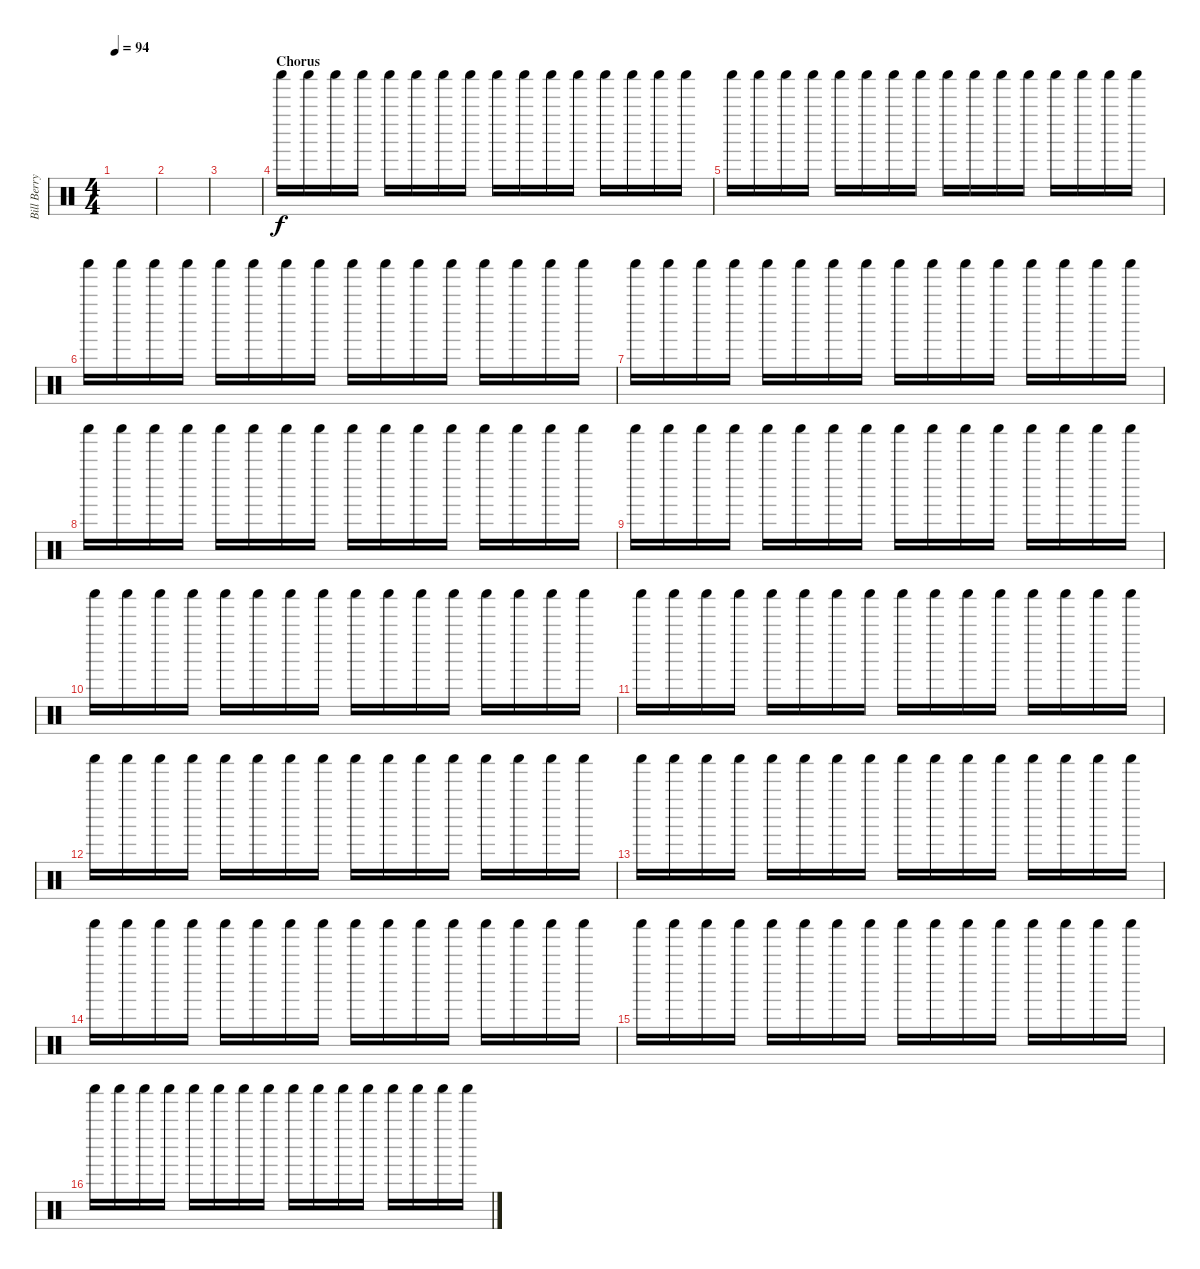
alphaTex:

\track ("Bill Berry (Percussion)" "Bill Berry") {instrument percussion}
\staff {score}
\articulation defaults
\ts (4 4)
\tempo 94
\clef neutral
\ks c
|
|
|
\section ("" "Chorus")
"Shaker (hit)".16 "Shaker (hit)".16 "Shaker (hit)".16 "Shaker (hit)".16 "Shaker (hit)".16 "Shaker (hit)".16 "Shaker (hit)".16 "Shaker (hit)".16 "Shaker (hit)".16 "Shaker (hit)".16 "Shaker (hit)".16 "Shaker (hit)".16 "Shaker (hit)".16 "Shaker (hit)".16 "Shaker (hit)".16 "Shaker (hit)".16 |
"Shaker (hit)".16 "Shaker (hit)".16 "Shaker (hit)".16 "Shaker (hit)".16 "Shaker (hit)".16 "Shaker (hit)".16 "Shaker (hit)".16 "Shaker (hit)".16 "Shaker (hit)".16 "Shaker (hit)".16 "Shaker (hit)".16 "Shaker (hit)".16 "Shaker (hit)".16 "Shaker (hit)".16 "Shaker (hit)".16 "Shaker (hit)".16 |
"Shaker (hit)".16 "Shaker (hit)".16 "Shaker (hit)".16 "Shaker (hit)".16 "Shaker (hit)".16 "Shaker (hit)".16 "Shaker (hit)".16 "Shaker (hit)".16 "Shaker (hit)".16 "Shaker (hit)".16 "Shaker (hit)".16 "Shaker (hit)".16 "Shaker (hit)".16 "Shaker (hit)".16 "Shaker (hit)".16 "Shaker (hit)".16 |
"Shaker (hit)".16 "Shaker (hit)".16 "Shaker (hit)".16 "Shaker (hit)".16 "Shaker (hit)".16 "Shaker (hit)".16 "Shaker (hit)".16 "Shaker (hit)".16 "Shaker (hit)".16 "Shaker (hit)".16 "Shaker (hit)".16 "Shaker (hit)".16 "Shaker (hit)".16 "Shaker (hit)".16 "Shaker (hit)".16 "Shaker (hit)".16 |
"Shaker (hit)".16 "Shaker (hit)".16 "Shaker (hit)".16 "Shaker (hit)".16 "Shaker (hit)".16 "Shaker (hit)".16 "Shaker (hit)".16 "Shaker (hit)".16 "Shaker (hit)".16 "Shaker (hit)".16 "Shaker (hit)".16 "Shaker (hit)".16 "Shaker (hit)".16 "Shaker (hit)".16 "Shaker (hit)".16 "Shaker (hit)".16 |
"Shaker (hit)".16 "Shaker (hit)".16 "Shaker (hit)".16 "Shaker (hit)".16 "Shaker (hit)".16 "Shaker (hit)".16 "Shaker (hit)".16 "Shaker (hit)".16 "Shaker (hit)".16 "Shaker (hit)".16 "Shaker (hit)".16 "Shaker (hit)".16 "Shaker (hit)".16 "Shaker (hit)".16 "Shaker (hit)".16 "Shaker (hit)".16 |
"Shaker (hit)".16 "Shaker (hit)".16 "Shaker (hit)".16 "Shaker (hit)".16 "Shaker (hit)".16 "Shaker (hit)".16 "Shaker (hit)".16 "Shaker (hit)".16 "Shaker (hit)".16 "Shaker (hit)".16 "Shaker (hit)".16 "Shaker (hit)".16 "Shaker (hit)".16 "Shaker (hit)".16 "Shaker (hit)".16 "Shaker (hit)".16 |
"Shaker (hit)".16 "Shaker (hit)".16 "Shaker (hit)".16 "Shaker (hit)".16 "Shaker (hit)".16 "Shaker (hit)".16 "Shaker (hit)".16 "Shaker (hit)".16 "Shaker (hit)".16 "Shaker (hit)".16 "Shaker (hit)".16 "Shaker (hit)".16 "Shaker (hit)".16 "Shaker (hit)".16 "Shaker (hit)".16 "Shaker (hit)".16 |
"Shaker (hit)".16 "Shaker (hit)".16 "Shaker (hit)".16 "Shaker (hit)".16 "Shaker (hit)".16 "Shaker (hit)".16 "Shaker (hit)".16 "Shaker (hit)".16 "Shaker (hit)".16 "Shaker (hit)".16 "Shaker (hit)".16 "Shaker (hit)".16 "Shaker (hit)".16 "Shaker (hit)".16 "Shaker (hit)".16 "Shaker (hit)".16 |
"Shaker (hit)".16 "Shaker (hit)".16 "Shaker (hit)".16 "Shaker (hit)".16 "Shaker (hit)".16 "Shaker (hit)".16 "Shaker (hit)".16 "Shaker (hit)".16 "Shaker (hit)".16 "Shaker (hit)".16 "Shaker (hit)".16 "Shaker (hit)".16 "Shaker (hit)".16 "Shaker (hit)".16 "Shaker (hit)".16 "Shaker (hit)".16 |
"Shaker (hit)".16 "Shaker (hit)".16 "Shaker (hit)".16 "Shaker (hit)".16 "Shaker (hit)".16 "Shaker (hit)".16 "Shaker (hit)".16 "Shaker (hit)".16 "Shaker (hit)".16 "Shaker (hit)".16 "Shaker (hit)".16 "Shaker (hit)".16 "Shaker (hit)".16 "Shaker (hit)".16 "Shaker (hit)".16 "Shaker (hit)".16 |
"Shaker (hit)".16 "Shaker (hit)".16 "Shaker (hit)".16 "Shaker (hit)".16 "Shaker (hit)".16 "Shaker (hit)".16 "Shaker (hit)".16 "Shaker (hit)".16 "Shaker (hit)".16 "Shaker (hit)".16 "Shaker (hit)".16 "Shaker (hit)".16 "Shaker (hit)".16 "Shaker (hit)".16 "Shaker (hit)".16 "Shaker (hit)".16 |
"Shaker (hit)".16 "Shaker (hit)".16 "Shaker (hit)".16 "Shaker (hit)".16 "Shaker (hit)".16 "Shaker (hit)".16 "Shaker (hit)".16 "Shaker (hit)".16 "Shaker (hit)".16 "Shaker (hit)".16 "Shaker (hit)".16 "Shaker (hit)".16 "Shaker (hit)".16 "Shaker (hit)".16 "Shaker (hit)".16 "Shaker (hit)".16
